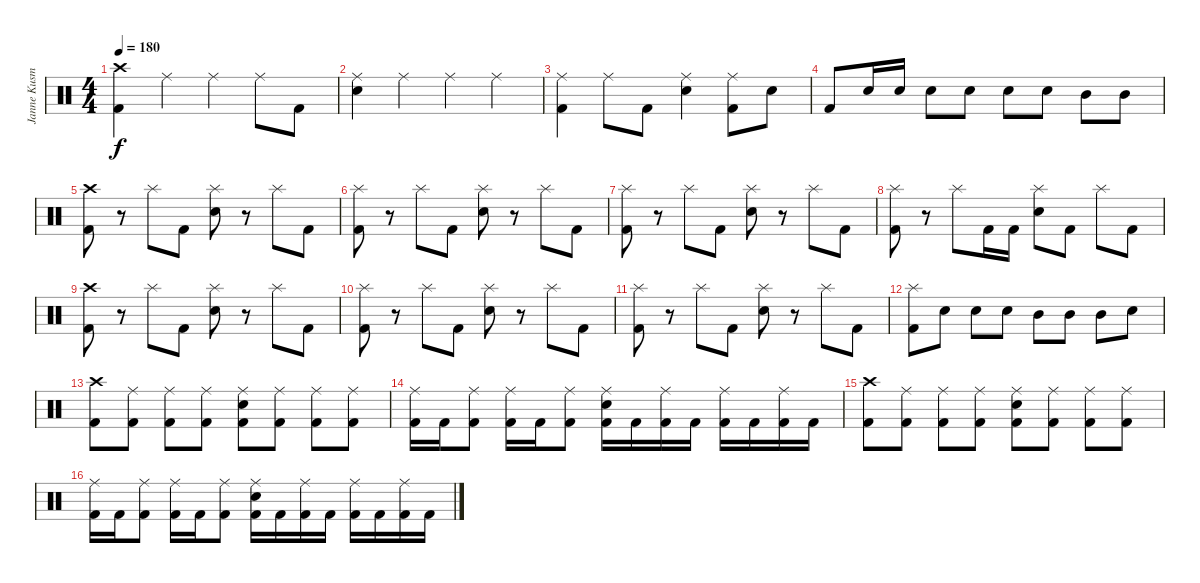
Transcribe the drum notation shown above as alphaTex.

\track ("Janne Kusmin - Drums" "Janne Kusm") {instrument percussion}
\staff {score}
\articulation defaults
\ts (4 4)
\tempo 180
\clef neutral
\ks c
("Crash high (hit)" "Kick (hit) 2").4{dy f} "Ride (middle)".4 "Ride (middle)".4 "Ride (middle)".8 "Kick (hit) 2".8 |
("Ride (middle)" "Electric Snare (hit)").4 "Ride (middle)".4 "Ride (middle)".4 "Ride (middle)".4 |
("Ride (middle)" "Kick (hit) 2").4 "Ride (middle)".8 "Kick (hit) 2".8 ("Ride (middle)" "Electric Snare (hit)").4 ("Ride (middle)" "Kick (hit) 2").8 "Electric Snare (hit)".8 |
"Kick (hit) 2".8 "Electric Snare (hit)".16 "Electric Snare (hit)".16 "Electric Snare (hit)".8 "Electric Snare (hit)".8 "Electric Snare (hit)".8 "Electric Snare (hit)".8 "Mid Tom (hit)".8 "Mid Tom (hit)".8 |
\section ("" "")
("Crash high (hit)" "Kick (hit) 2").8 r.8 "Splash (hit)".8 "Kick (hit) 2".8 ("Splash (hit)" "Electric Snare (hit)").8 r.8 "Splash (hit)".8 "Kick (hit) 2".8 |
("Splash (hit)" "Kick (hit) 2").8 r.8 "Splash (hit)".8 "Kick (hit) 2".8 ("Splash (hit)" "Electric Snare (hit)").8 r.8 "Splash (hit)".8 "Kick (hit) 2".8 |
("Splash (hit)" "Kick (hit) 2").8 r.8 "Splash (hit)".8 "Kick (hit) 2".8 ("Splash (hit)" "Electric Snare (hit)").8 r.8 "Splash (hit)".8 "Kick (hit) 2".8 |
("Splash (hit)" "Kick (hit) 2").8 r.8 "Splash (hit)".8 "Kick (hit) 2".16 "Kick (hit) 2".16 ("Splash (hit)" "Electric Snare (hit)").8 "Kick (hit) 2".8 "Splash (hit)".8 "Kick (hit) 2".8 |
("Crash high (hit)" "Kick (hit) 2").8 r.8 "Splash (hit)".8 "Kick (hit) 2".8 ("Splash (hit)" "Electric Snare (hit)").8 r.8 "Splash (hit)".8 "Kick (hit) 2".8 |
("Splash (hit)" "Kick (hit) 2").8 r.8 "Splash (hit)".8 "Kick (hit) 2".8 ("Splash (hit)" "Electric Snare (hit)").8 r.8 "Splash (hit)".8 "Kick (hit) 2".8 |
("Splash (hit)" "Kick (hit) 2").8 r.8 "Splash (hit)".8 "Kick (hit) 2".8 ("Splash (hit)" "Electric Snare (hit)").8 r.8 "Splash (hit)".8 "Kick (hit) 2".8 |
("Splash (hit)" "Kick (hit) 2").8 "Electric Snare (hit)".8 "Electric Snare (hit)".8 "Electric Snare (hit)".8 "Mid Tom (hit)".8 "Mid Tom (hit)".8 "Mid Tom (hit)".8 "Electric Snare (hit)".8 |
("Crash high (hit)" "Kick (hit) 2").8 ("Ride (middle)" "Kick (hit) 2").8 ("Ride (middle)" "Kick (hit) 2").8 ("Ride (middle)" "Kick (hit) 2").8 ("Ride (middle)" "Electric Snare (hit)" "Kick (hit) 2").8 ("Ride (middle)" "Kick (hit) 2").8 ("Ride (middle)" "Kick (hit) 2").8 ("Ride (middle)" "Kick (hit) 2").8 |
("Ride (middle)" "Kick (hit) 2").16 "Kick (hit) 2".16 ("Ride (middle)" "Kick (hit) 2").8 ("Ride (middle)" "Kick (hit) 2").16 "Kick (hit) 2".16 ("Ride (middle)" "Kick (hit) 2").8 ("Ride (middle)" "Electric Snare (hit)" "Kick (hit) 2").16 "Kick (hit) 2".16 ("Ride (middle)" "Kick (hit) 2").16 "Kick (hit) 2".16 ("Ride (middle)" "Kick (hit) 2").16 "Kick (hit) 2".16 ("Ride (middle)" "Kick (hit) 2").16 "Kick (hit) 2".16 |
("Crash high (hit)" "Kick (hit) 2").8 ("Ride (middle)" "Kick (hit) 2").8 ("Ride (middle)" "Kick (hit) 2").8 ("Ride (middle)" "Kick (hit) 2").8 ("Ride (middle)" "Electric Snare (hit)" "Kick (hit) 2").8 ("Ride (middle)" "Kick (hit) 2").8 ("Ride (middle)" "Kick (hit) 2").8 ("Ride (middle)" "Kick (hit) 2").8 |
("Ride (middle)" "Kick (hit) 2").16 "Kick (hit) 2".16 ("Ride (middle)" "Kick (hit) 2").8 ("Ride (middle)" "Kick (hit) 2").16 "Kick (hit) 2".16 ("Ride (middle)" "Kick (hit) 2").8 ("Ride (middle)" "Electric Snare (hit)" "Kick (hit) 2").16 "Kick (hit) 2".16 ("Ride (middle)" "Kick (hit) 2").16 "Kick (hit) 2".16 ("Ride (middle)" "Kick (hit) 2").16 "Kick (hit) 2".16 ("Ride (middle)" "Kick (hit) 2").16 "Kick (hit) 2".16
